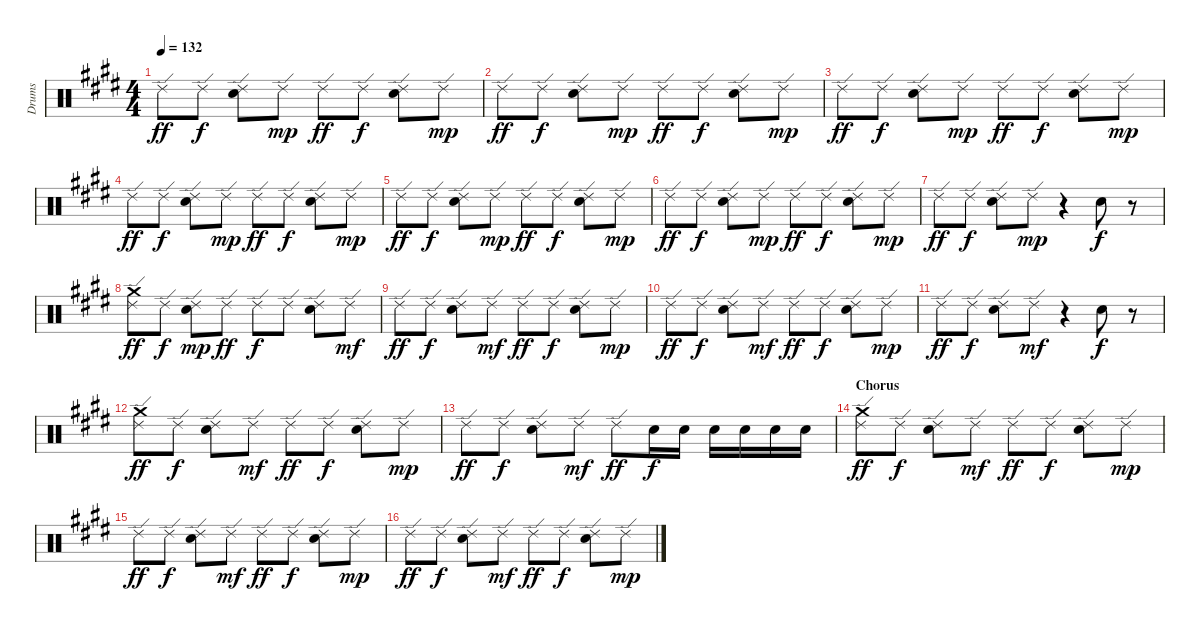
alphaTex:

\track ("Drums" "Drums") {instrument percussion}
\staff {score}
\articulation defaults
\ts (4 4)
\tempo 132
\clef neutral
\ks e "Ride (edge) 2".8{dy ff} "Ride (edge) 2".8{dy f}
("Electric Snare (hit)" "Ride (edge) 2").8 "Ride (edge) 2".8{dy mp} "Ride (edge) 2".8{dy ff} "Ride (edge) 2".8{dy f} ("Electric Snare (hit)" "Ride (edge) 2").8 "Ride (edge) 2".8{dy mp} |
"Ride (edge) 2".8{dy ff} "Ride (edge) 2".8{dy f} ("Electric Snare (hit)" "Ride (edge) 2").8 "Ride (edge) 2".8{dy mp} "Ride (edge) 2".8{dy ff} "Ride (edge) 2".8{dy f} ("Electric Snare (hit)" "Ride (edge) 2").8 "Ride (edge) 2".8{dy mp} |
"Ride (edge) 2".8{dy ff} "Ride (edge) 2".8{dy f} ("Electric Snare (hit)" "Ride (edge) 2").8 "Ride (edge) 2".8{dy mp} "Ride (edge) 2".8{dy ff} "Ride (edge) 2".8{dy f} ("Electric Snare (hit)" "Ride (edge) 2").8 "Ride (edge) 2".8{dy mp} |
"Ride (edge) 2".8{dy ff} "Ride (edge) 2".8{dy f} ("Electric Snare (hit)" "Ride (edge) 2").8 "Ride (edge) 2".8{dy mp} "Ride (edge) 2".8{dy ff} "Ride (edge) 2".8{dy f} ("Electric Snare (hit)" "Ride (edge) 2").8 "Ride (edge) 2".8{dy mp} |
"Ride (edge) 2".8{dy ff} "Ride (edge) 2".8{dy f} ("Electric Snare (hit)" "Ride (edge) 2").8 "Ride (edge) 2".8{dy mp} "Ride (edge) 2".8{dy ff} "Ride (edge) 2".8{dy f} ("Electric Snare (hit)" "Ride (edge) 2").8 "Ride (edge) 2".8{dy mp} |
"Ride (edge) 2".8{dy ff} "Ride (edge) 2".8{dy f} ("Electric Snare (hit)" "Ride (edge) 2").8 "Ride (edge) 2".8{dy mp} "Ride (edge) 2".8{dy ff} "Ride (edge) 2".8{dy f} ("Electric Snare (hit)" "Ride (edge) 2").8 "Ride (edge) 2".8{dy mp} |
"Ride (edge) 2".8{dy ff} "Ride (edge) 2".8{dy f} ("Electric Snare (hit)" "Ride (edge) 2").8 "Ride (edge) 2".8{dy mp} r.4 "Electric Snare (hit)".8{dy f} r.8 |
("Crash medium (hit)" "Ride (edge) 2").8{dy ff} "Ride (edge) 2".8{dy f} ("Electric Snare (hit)" "Ride (edge) 2").8{dy mp} "Ride (edge) 2".8{dy ff} "Ride (edge) 2".8{dy f} "Ride (edge) 2".8 ("Electric Snare (hit)" "Ride (edge) 2").8 "Ride (edge) 2".8{dy mf} |
"Ride (edge) 2".8{dy ff} "Ride (edge) 2".8{dy f} ("Electric Snare (hit)" "Ride (edge) 2").8 "Ride (edge) 2".8{dy mf} "Ride (edge) 2".8{dy ff} "Ride (edge) 2".8{dy f} ("Electric Snare (hit)" "Ride (edge) 2").8 "Ride (edge) 2".8{dy mp} |
"Ride (edge) 2".8{dy ff} "Ride (edge) 2".8{dy f} ("Electric Snare (hit)" "Ride (edge) 2").8 "Ride (edge) 2".8{dy mf} "Ride (edge) 2".8{dy ff} "Ride (edge) 2".8{dy f} ("Electric Snare (hit)" "Ride (edge) 2").8 "Ride (edge) 2".8{dy mp} |
"Ride (edge) 2".8{dy ff} "Ride (edge) 2".8{dy f} ("Electric Snare (hit)" "Ride (edge) 2").8 "Ride (edge) 2".8{dy mf} r.4 "Electric Snare (hit)".8{dy f} r.8 |
("Crash medium (hit)" "Ride (edge) 2").8{dy ff} "Ride (edge) 2".8{dy f} ("Electric Snare (hit)" "Ride (edge) 2").8 "Ride (edge) 2".8{dy mf} "Ride (edge) 2".8{dy ff} "Ride (edge) 2".8{dy f} ("Electric Snare (hit)" "Ride (edge) 2").8 "Ride (edge) 2".8{dy mp} |
"Ride (edge) 2".8{dy ff} "Ride (edge) 2".8{dy f} ("Electric Snare (hit)" "Ride (edge) 2").8 "Ride (edge) 2".8{dy mf} "Ride (edge) 2".8{dy ff} "Electric Snare (hit)".16{dy f} "Electric Snare (hit)".16 "Electric Snare (hit)".16 "Electric Snare (hit)".16 "Electric Snare (hit)".16 "Electric Snare (hit)".16 |
\section ("" "Chorus")
("Crash medium (hit)" "Ride (edge) 2").8{dy ff} "Ride (edge) 2".8{dy f} ("Electric Snare (hit)" "Ride (edge) 2").8 "Ride (edge) 2".8{dy mf} "Ride (edge) 2".8{dy ff} "Ride (edge) 2".8{dy f} ("Electric Snare (hit)" "Ride (edge) 2").8 "Ride (edge) 2".8{dy mp} |
"Ride (edge) 2".8{dy ff} "Ride (edge) 2".8{dy f} ("Electric Snare (hit)" "Ride (edge) 2").8 "Ride (edge) 2".8{dy mf} "Ride (edge) 2".8{dy ff} "Ride (edge) 2".8{dy f} ("Electric Snare (hit)" "Ride (edge) 2").8 "Ride (edge) 2".8{dy mp} |
"Ride (edge) 2".8{dy ff} "Ride (edge) 2".8{dy f} ("Electric Snare (hit)" "Ride (edge) 2").8 "Ride (edge) 2".8{dy mf} "Ride (edge) 2".8{dy ff} "Ride (edge) 2".8{dy f} ("Electric Snare (hit)" "Ride (edge) 2").8 "Ride (edge) 2".8{dy mp}
